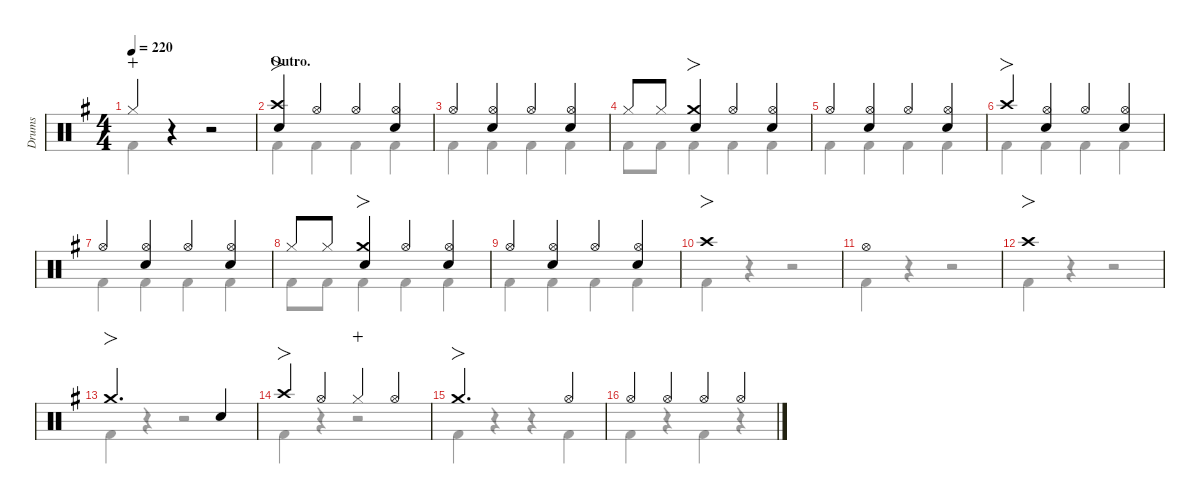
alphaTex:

\hideDynamics
\bracketExtendMode nobrackets
\multiBarRest
\otherSystemsTrackNameOrientation horizontal
\track ("Drums" "Drums") {defaultSystemsLayout 4 multiBarRest instrument percussion}
\staff {score}
\articulation defaults
\voice
\ts (4 4)
\tempo 220
\clef neutral
\scale
0.990737
\ks g "Hi-Hat (closed)"{acc forcenatural}.4{dy f wahc beam Up}
r.4{beam Up} r.2{beam Up} |
\section ("" "Outro.")
\scale
1.06758 ("Crash high (hit)"{acc forcenatural} "Snare (hit) 2"{acc forcenatural}).4{fo beam Up} "Hi-Hat (open)"{acc forcenatural}.4{beam Up} "Hi-Hat (open)"{acc forcenatural}.4{beam Up} ("Hi-Hat (open)"{acc forcenatural} "Snare (hit) 2"{acc forcenatural}).4{beam Up} |
\scale
0.977474 "Hi-Hat (open)"{acc forcenatural}.4{beam Up} ("Hi-Hat (open)"{acc forcenatural} "Snare (hit) 2"{acc forcenatural}).4{beam Up} "Hi-Hat (open)"{acc forcenatural}.4{beam Up} ("Hi-Hat (open)"{acc forcenatural} "Snare (hit) 2"{acc forcenatural}).4{beam Up} |
\scale
0.977474 "Hi-Hat (closed)"{acc forcenatural}.8{beam Up} "Hi-Hat (closed)"{acc forcenatural}.8{dy mf beam Up} ("Crash medium (hit)"{acc forcenatural} "Snare (hit) 2"{acc forcenatural}).4{fo dy f beam Up} "Hi-Hat (open)"{acc forcenatural}.4{beam Up} ("Hi-Hat (open)"{acc forcenatural} "Snare (hit) 2"{acc forcenatural}).4{beam Up} |
\scale
0.977474 "Hi-Hat (open)"{acc forcenatural}.4{beam Up} ("Hi-Hat (open)"{acc forcenatural} "Snare (hit) 2"{acc forcenatural}).4{beam Up} "Hi-Hat (open)"{acc forcenatural}.4{beam Up} ("Hi-Hat (open)"{acc forcenatural} "Snare (hit) 2"{acc forcenatural}).4{beam Up} |
\scale
1.06758 "Crash high (hit)"{acc forcenatural}.4{fo beam Up} ("Hi-Hat (open)"{acc forcenatural} "Snare (hit) 2"{acc forcenatural}).4{beam Up} "Hi-Hat (open)"{acc forcenatural}.4{beam Up} ("Hi-Hat (open)"{acc forcenatural} "Snare (hit) 2"{acc forcenatural}).4{beam Up} |
\scale
0.977474 "Hi-Hat (open)"{acc forcenatural}.4{beam Up} ("Hi-Hat (open)"{acc forcenatural} "Snare (hit) 2"{acc forcenatural}).4{beam Up} "Hi-Hat (open)"{acc forcenatural}.4{beam Up} ("Hi-Hat (open)"{acc forcenatural} "Snare (hit) 2"{acc forcenatural}).4{beam Up} |
\scale
0.977474 "Hi-Hat (closed)"{acc forcenatural}.8{beam Up} "Hi-Hat (closed)"{acc forcenatural}.8{dy mf beam Up} ("Crash medium (hit)"{acc forcenatural} "Snare (hit) 2"{acc forcenatural}).4{fo dy f beam Up} "Hi-Hat (open)"{acc forcenatural}.4{beam Up} ("Hi-Hat (open)"{acc forcenatural} "Snare (hit) 2"{acc forcenatural}).4{beam Up} |
\scale
0.977474 "Hi-Hat (open)"{acc forcenatural}.4{beam Up} ("Hi-Hat (open)"{acc forcenatural} "Snare (hit) 2"{acc forcenatural}).4{beam Up} "Hi-Hat (open)"{acc forcenatural}.4{beam Up} ("Hi-Hat (open)"{acc forcenatural} "Snare (hit) 2"{acc forcenatural}).4{beam Up} |
\scale
1.06758 "Crash high (hit)"{acc forcenatural}.1{fo beam Up} |
\scale
0.977474 "Hi-Hat (open)"{acc forcenatural}.1{beam Up} |
\scale
0.977474 "Crash high (hit)"{acc forcenatural}.1{fo beam Up} |
\scale
0.977474 "Crash medium (hit)"{acc forcenatural}.2{fo d beam Up} "Snare (hit) 2"{acc forcenatural}.4{beam Up} |
\scale
1.07663 "Crash high (hit)"{acc forcenatural}.4{fo beam Up} "Hi-Hat (open)"{acc forcenatural}.4{beam Up} "Hi-Hat (closed)"{acc forcenatural}.4{dy mp wahc beam Up} "Hi-Hat (open)"{acc forcenatural}.4{dy f beam Up} |
\scale
0.971762 "Crash medium (hit)"{acc forcenatural}.2{fo d beam Up} "Hi-Hat (open)"{acc forcenatural}.4{beam Up} |
\scale
0.968719 "Hi-Hat (open)"{acc forcenatural}.4{beam Up} "Hi-Hat (open)"{acc forcenatural}.4{beam Up} "Hi-Hat (open)"{acc forcenatural}.4{beam Up} "Hi-Hat (open)"{acc forcenatural}.4{beam Up}
\voice
\clef neutral
\ottava regular
\simile none
\scale
0.990737
\ks g "Kick (hit) 2"{acc forcenatural}.4{dy f beam Down}
r.4{beam Down} r.2{beam Down} |
\scale
1.06758 "Kick (hit) 2"{acc forcenatural}.4{beam Down} "Kick (hit) 2"{acc forcenatural}.4{beam Down} "Kick (hit) 2"{acc forcenatural}.4{beam Down} "Kick (hit) 2"{acc forcenatural}.4{beam Down} |
\scale
0.977474 "Kick (hit) 2"{acc forcenatural}.4{beam Down} "Kick (hit) 2"{acc forcenatural}.4{beam Down} "Kick (hit) 2"{acc forcenatural}.4{beam Down} "Kick (hit) 2"{acc forcenatural}.4{beam Down} |
\scale
0.977474 "Kick (hit) 2"{acc forcenatural}.8{beam Down} "Kick (hit) 2"{acc forcenatural}.8{beam Down} "Kick (hit) 2"{acc forcenatural}.4{beam Down} "Kick (hit) 2"{acc forcenatural}.4{beam Down} "Kick (hit) 2"{acc forcenatural}.4{beam Down} |
\scale
0.977474 "Kick (hit) 2"{acc forcenatural}.4{beam Down} "Kick (hit) 2"{acc forcenatural}.4{beam Down} "Kick (hit) 2"{acc forcenatural}.4{beam Down} "Kick (hit) 2"{acc forcenatural}.4{beam Down} |
\scale
1.06758 "Kick (hit) 2"{acc forcenatural}.4{beam Down} "Kick (hit) 2"{acc forcenatural}.4{beam Down} "Kick (hit) 2"{acc forcenatural}.4{beam Down} "Kick (hit) 2"{acc forcenatural}.4{beam Down} |
\scale
0.977474 "Kick (hit) 2"{acc forcenatural}.4{beam Down} "Kick (hit) 2"{acc forcenatural}.4{beam Down} "Kick (hit) 2"{acc forcenatural}.4{beam Down} "Kick (hit) 2"{acc forcenatural}.4{beam Down} |
\scale
0.977474 "Kick (hit) 2"{acc forcenatural}.8{beam Down} "Kick (hit) 2"{acc forcenatural}.8{beam Down} "Kick (hit) 2"{acc forcenatural}.4{beam Down} "Kick (hit) 2"{acc forcenatural}.4{beam Down} "Kick (hit) 2"{acc forcenatural}.4{beam Down} |
\scale
0.977474 "Kick (hit) 2"{acc forcenatural}.4{beam Down} "Kick (hit) 2"{acc forcenatural}.4{beam Down} "Kick (hit) 2"{acc forcenatural}.4{beam Down} "Kick (hit) 2"{acc forcenatural}.4{beam Down} |
\scale
1.06758 "Kick (hit) 2"{acc forcenatural}.4{beam Down} r.4{beam Down} r.2{beam Down} |
\scale
0.977474 "Kick (hit) 2"{acc forcenatural}.4{beam Down} r.4{beam Down} r.2{beam Down} |
\scale
0.977474 "Kick (hit) 2"{acc forcenatural}.4{beam Down} r.4{beam Down} r.2{beam Down} |
\scale
0.977474 "Kick (hit) 2"{acc forcenatural}.4{beam Down} r.4{beam Down} r.2{beam Down} |
\scale
1.07663 "Kick (hit) 2"{acc forcenatural}.4{beam Down} r.4{beam Down} r.2{beam Down} |
\scale
0.971762 "Kick (hit) 2"{acc forcenatural}.4{beam Down} r.4{beam Down} r.4{beam Down} "Kick (hit) 2"{acc forcenatural}.4{beam Down} |
\scale
0.968719 "Kick (hit) 2"{acc forcenatural}.4{beam Down} r.4{beam Down} "Kick (hit) 2"{acc forcenatural}.4{beam Down} r.4{beam Down}
